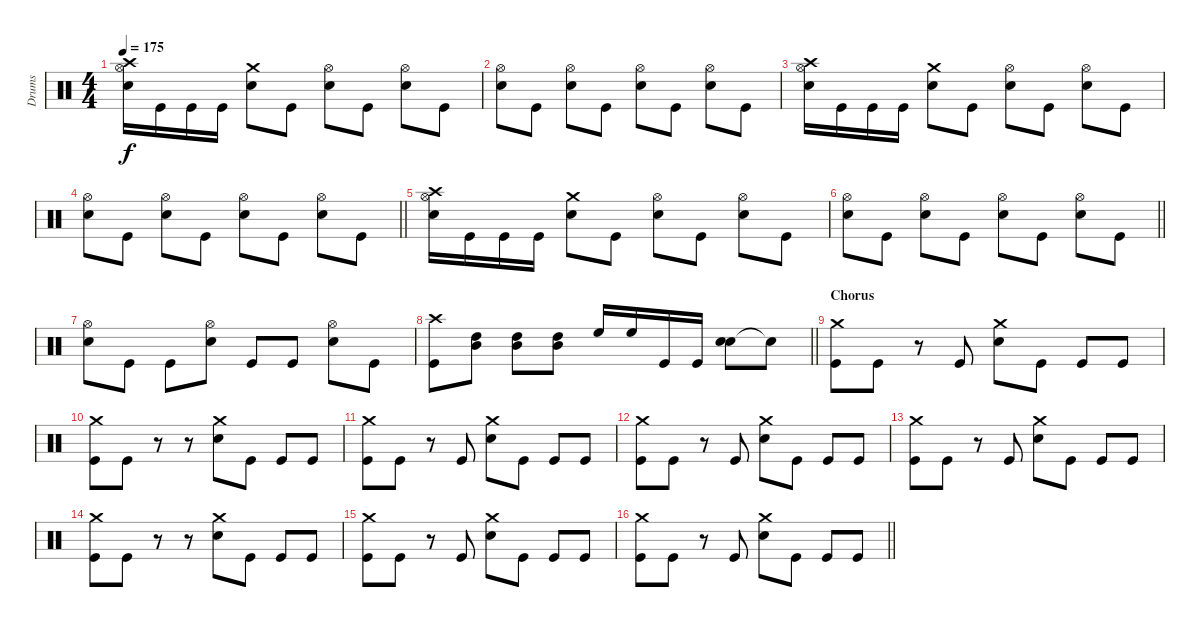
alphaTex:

\track ("Drums" "Drums") {instrument percussion}
\staff {score}
\articulation defaults
\ts (4 4)
\tempo 175
\clef neutral
\ks c
("Crash high (hit)" "Hi-Hat (open)" "Electric Snare (hit)").16{dy f} "Kick (hit)".16 "Kick (hit)".16 "Kick (hit)".16 ("Crash medium (hit)" "Electric Snare (hit)").8 "Kick (hit)".8 ("Hi-Hat (open)" "Electric Snare (hit)").8 "Kick (hit)".8 ("Hi-Hat (open)" "Electric Snare (hit)").8 "Kick (hit)".8 |
("Hi-Hat (open)" "Electric Snare (hit)").8 "Kick (hit)".8 ("Hi-Hat (open)" "Electric Snare (hit)").8 "Kick (hit)".8 ("Hi-Hat (open)" "Electric Snare (hit)").8 "Kick (hit)".8 ("Hi-Hat (open)" "Electric Snare (hit)").8 "Kick (hit)".8 |
("Crash high (hit)" "Hi-Hat (open)" "Electric Snare (hit)").16 "Kick (hit)".16 "Kick (hit)".16 "Kick (hit)".16 ("Crash medium (hit)" "Electric Snare (hit)").8 "Kick (hit)".8 ("Hi-Hat (open)" "Electric Snare (hit)").8 "Kick (hit)".8 ("Hi-Hat (open)" "Electric Snare (hit)").8 "Kick (hit)".8 |
\barLineRight lightlight
("Hi-Hat (open)" "Electric Snare (hit)").8 "Kick (hit)".8 ("Hi-Hat (open)" "Electric Snare (hit)").8 "Kick (hit)".8 ("Hi-Hat (open)" "Electric Snare (hit)").8 "Kick (hit)".8 ("Hi-Hat (open)" "Electric Snare (hit)").8 "Kick (hit)".8 |
("Crash high (hit)" "Hi-Hat (open)" "Electric Snare (hit)").16 "Kick (hit)".16 "Kick (hit)".16 "Kick (hit)".16 ("Crash medium (hit)" "Electric Snare (hit)").8 "Kick (hit)".8 ("Hi-Hat (open)" "Electric Snare (hit)").8 "Kick (hit)".8 ("Hi-Hat (open)" "Electric Snare (hit)").8 "Kick (hit)".8 |
\barLineRight lightlight
("Hi-Hat (open)" "Electric Snare (hit)").8 "Kick (hit)".8 ("Hi-Hat (open)" "Electric Snare (hit)").8 "Kick (hit)".8 ("Hi-Hat (open)" "Electric Snare (hit)").8 "Kick (hit)".8 ("Hi-Hat (open)" "Electric Snare (hit)").8 "Kick (hit)".8 |
("Hi-Hat (open)" "Electric Snare (hit)").8 "Kick (hit)".8 "Kick (hit)".8 ("Hi-Hat (open)" "Electric Snare (hit)").8 "Kick (hit)".8 "Kick (hit)".8 ("Hi-Hat (open)" "Electric Snare (hit)").8 "Kick (hit)".8 |
\barLineRight lightlight
("Crash high (hit)" "Kick (hit)").8 ("High Tom (hit)" "Mid Tom (hit)").8 ("High Tom (hit)" "Mid Tom (hit)").8 ("High Tom (hit)" "Mid Tom (hit)").8 "High Floor Tom (hit)".16 "High Floor Tom (hit)".16 "Kick (hit)".16 "Kick (hit)".16 ("Electric Snare (hit)" "Electric Snare (hit)").8 "Snare (hit)"{t}.8 |
\section ("" "Chorus")
("Crash medium (hit)" "Kick (hit)").8 "Kick (hit)".8 r.8 "Kick (hit)".8 ("Crash medium (hit)" "Electric Snare (hit)").8 "Kick (hit)".8 "Kick (hit)".8 "Kick (hit)".8 |
("Crash medium (hit)" "Kick (hit)").8 "Kick (hit)".8 r.8 r.8 ("Crash medium (hit)" "Electric Snare (hit)").8 "Kick (hit)".8 "Kick (hit)".8 "Kick (hit)".8 |
("Crash medium (hit)" "Kick (hit)").8 "Kick (hit)".8 r.8 "Kick (hit)".8 ("Crash medium (hit)" "Electric Snare (hit)").8 "Kick (hit)".8 "Kick (hit)".8 "Kick (hit)".8 |
("Crash medium (hit)" "Kick (hit)").8 "Kick (hit)".8 r.8 "Kick (hit)".8 ("Crash medium (hit)" "Electric Snare (hit)").8 "Kick (hit)".8 "Kick (hit)".8 "Kick (hit)".8 |
("Crash medium (hit)" "Kick (hit)").8 "Kick (hit)".8 r.8 "Kick (hit)".8 ("Crash medium (hit)" "Electric Snare (hit)").8 "Kick (hit)".8 "Kick (hit)".8 "Kick (hit)".8 |
("Crash medium (hit)" "Kick (hit)").8 "Kick (hit)".8 r.8 r.8 ("Crash medium (hit)" "Electric Snare (hit)").8 "Kick (hit)".8 "Kick (hit)".8 "Kick (hit)".8 |
("Crash medium (hit)" "Kick (hit)").8 "Kick (hit)".8 r.8 "Kick (hit)".8 ("Crash medium (hit)" "Electric Snare (hit)").8 "Kick (hit)".8 "Kick (hit)".8 "Kick (hit)".8 |
\barLineRight lightlight
("Crash medium (hit)" "Kick (hit)").8 "Kick (hit)".8 r.8 "Kick (hit)".8 ("Crash medium (hit)" "Electric Snare (hit)").8 "Kick (hit)".8 "Kick (hit)".8 "Kick (hit)".8
